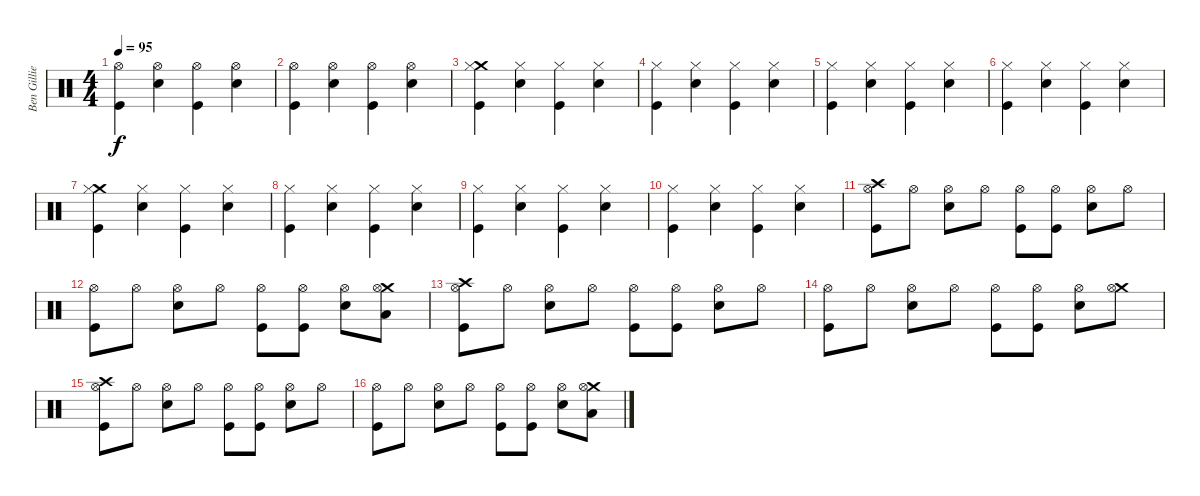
\track ("Ben Gillies (drums)" "Ben Gillie") {instrument percussion}
\staff {score}
\articulation defaults
\ts (4 4)
\tempo 95
\clef neutral
\ks c
("Kick (hit)" "Hi-Hat (open)").4{dy f} ("Snare (hit) 2" "Hi-Hat (open)").4 ("Kick (hit)" "Hi-Hat (open)").4 ("Snare (hit) 2" "Hi-Hat (open)").4 |
("Kick (hit)" "Hi-Hat (open)").4 ("Snare (hit) 2" "Hi-Hat (open)").4 ("Kick (hit)" "Hi-Hat (open)").4 ("Snare (hit) 2" "Hi-Hat (open)").4 |
("Crash medium (hit)" "Kick (hit)" "Hi-Hat (closed)").4 ("Snare (hit) 2" "Hi-Hat (closed)").4 ("Kick (hit)" "Hi-Hat (closed)").4 ("Snare (hit) 2" "Hi-Hat (closed)").4 |
("Kick (hit)" "Hi-Hat (closed)").4 ("Snare (hit) 2" "Hi-Hat (closed)").4 ("Kick (hit)" "Hi-Hat (closed)").4 ("Snare (hit) 2" "Hi-Hat (closed)").4 |
("Kick (hit)" "Hi-Hat (closed)").4 ("Snare (hit) 2" "Hi-Hat (closed)").4 ("Kick (hit)" "Hi-Hat (closed)").4 ("Snare (hit) 2" "Hi-Hat (closed)").4 |
("Kick (hit)" "Hi-Hat (closed)").4 ("Snare (hit) 2" "Hi-Hat (closed)").4 ("Kick (hit)" "Hi-Hat (closed)").4 ("Snare (hit) 2" "Hi-Hat (closed)").4 |
("Crash medium (hit)" "Kick (hit)" "Hi-Hat (closed)").4 ("Snare (hit) 2" "Hi-Hat (closed)").4 ("Kick (hit)" "Hi-Hat (closed)").4 ("Snare (hit) 2" "Hi-Hat (closed)").4 |
("Kick (hit)" "Hi-Hat (closed)").4 ("Snare (hit) 2" "Hi-Hat (closed)").4 ("Kick (hit)" "Hi-Hat (closed)").4 ("Snare (hit) 2" "Hi-Hat (closed)").4 |
("Kick (hit)" "Hi-Hat (closed)").4 ("Snare (hit) 2" "Hi-Hat (closed)").4 ("Kick (hit)" "Hi-Hat (closed)").4 ("Snare (hit) 2" "Hi-Hat (closed)").4 |
("Kick (hit)" "Hi-Hat (closed)").4 ("Snare (hit) 2" "Hi-Hat (closed)").4 ("Kick (hit)" "Hi-Hat (closed)").4 ("Snare (hit) 2" "Hi-Hat (closed)").4 |
("Crash high (hit)" "Kick (hit)" "Hi-Hat (open)").8 "Hi-Hat (open)".8 ("Snare (hit) 2" "Hi-Hat (open)").8 "Hi-Hat (open)".8 ("Kick (hit)" "Hi-Hat (open)").8 ("Kick (hit)" "Hi-Hat (open)").8 ("Snare (hit) 2" "Hi-Hat (open)").8 "Hi-Hat (open)".8 |
("Kick (hit)" "Hi-Hat (open)").8 "Hi-Hat (open)".8 ("Snare (hit) 2" "Hi-Hat (open)").8 "Hi-Hat (open)".8 ("Kick (hit)" "Hi-Hat (open)").8 ("Kick (hit)" "Hi-Hat (open)").8 ("Snare (hit) 2" "Hi-Hat (open)").8 ("Crash medium (hit)" "Low Tom (hit)" "Hi-Hat (open)").8 |
("Crash high (hit)" "Kick (hit)" "Hi-Hat (open)").8 "Hi-Hat (open)".8 ("Snare (hit) 2" "Hi-Hat (open)").8 "Hi-Hat (open)".8 ("Kick (hit)" "Hi-Hat (open)").8 ("Kick (hit)" "Hi-Hat (open)").8 ("Snare (hit) 2" "Hi-Hat (open)").8 "Hi-Hat (open)".8 |
("Kick (hit)" "Hi-Hat (open)").8 "Hi-Hat (open)".8 ("Snare (hit) 2" "Hi-Hat (open)").8 "Hi-Hat (open)".8 ("Kick (hit)" "Hi-Hat (open)").8 ("Kick (hit)" "Hi-Hat (open)").8 ("Snare (hit) 2" "Hi-Hat (open)").8 ("Crash medium (hit)" "Hi-Hat (open)").8 |
("Crash high (hit)" "Kick (hit)" "Hi-Hat (open)").8 "Hi-Hat (open)".8 ("Snare (hit) 2" "Hi-Hat (open)").8 "Hi-Hat (open)".8 ("Kick (hit)" "Hi-Hat (open)").8 ("Kick (hit)" "Hi-Hat (open)").8 ("Snare (hit) 2" "Hi-Hat (open)").8 "Hi-Hat (open)".8 |
("Kick (hit)" "Hi-Hat (open)").8 "Hi-Hat (open)".8 ("Snare (hit) 2" "Hi-Hat (open)").8 "Hi-Hat (open)".8 ("Kick (hit)" "Hi-Hat (open)").8 ("Kick (hit)" "Hi-Hat (open)").8 ("Snare (hit) 2" "Hi-Hat (open)").8 ("Crash medium (hit)" "Low Tom (hit)" "Hi-Hat (open)").8
